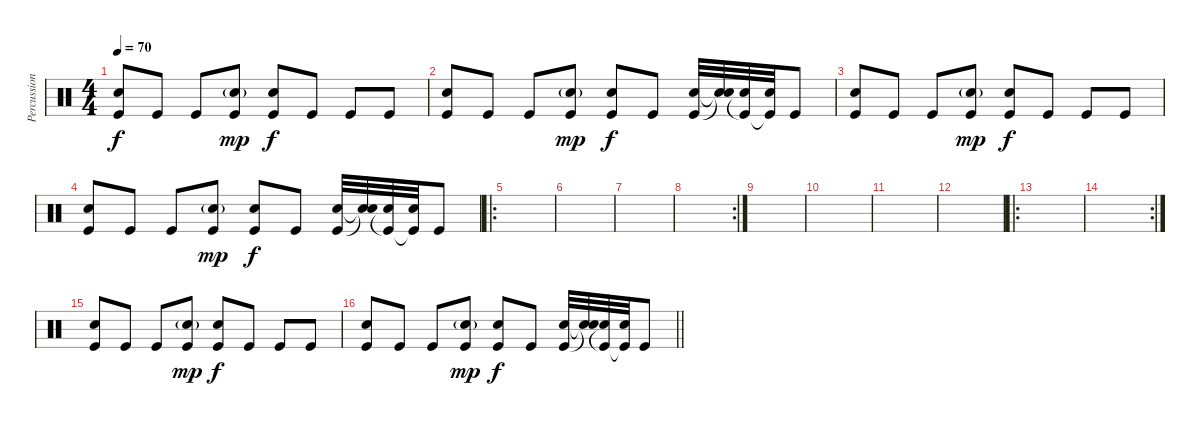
\track ("Percussions" "Percussion") {instrument percussion}
\staff {score}
\articulation defaults
\ts (4 4)
\tempo 70
\clef neutral
\ks c
("Kick (hit)" "Snare (hit) 2").8{dy f} "Kick (hit)".8 "Kick (hit)".8 ("Kick (hit)" "Snare (hit) 2"{g}).8{dy mp} ("Kick (hit)" "Snare (hit) 2").8{dy f} "Kick (hit)".8 "Kick (hit)".8 "Kick (hit)".8 |
("Kick (hit)" "Snare (hit) 2").8 "Kick (hit)".8 "Kick (hit)".8 ("Kick (hit)" "Snare (hit) 2"{g}).8{dy mp} ("Kick (hit)" "Snare (hit) 2").8{dy f} "Kick (hit)".8 ("Kick (hit)" "Snare (hit) 2").32 ("Snare (hit)"{t} "Snare (hit) 2"{t}).32 ("Kick (hit)"{t} "Snare (hit) 2").32 ("Kick (hit)"{t} "Snare (hit) 2").32 "Kick (hit)".8 |
("Kick (hit)" "Snare (hit) 2").8 "Kick (hit)".8 "Kick (hit)".8 ("Kick (hit)" "Snare (hit) 2"{g}).8{dy mp} ("Kick (hit)" "Snare (hit) 2").8{dy f} "Kick (hit)".8 "Kick (hit)".8 "Kick (hit)".8 |
("Kick (hit)" "Snare (hit) 2").8 "Kick (hit)".8 "Kick (hit)".8 ("Kick (hit)" "Snare (hit) 2"{g}).8{dy mp} ("Kick (hit)" "Snare (hit) 2").8{dy f} "Kick (hit)".8 ("Kick (hit)" "Snare (hit) 2").32 ("Snare (hit)"{t} "Snare (hit) 2"{t}).32 ("Kick (hit)"{t} "Snare (hit) 2").32 ("Kick (hit)"{t} "Snare (hit) 2").32 "Kick (hit)".8 |
\ro
|
|
|
\rc 2
|
|
|
|
|
\ro
|
\rc 2
|
("Kick (hit)" "Snare (hit) 2").8 "Kick (hit)".8 "Kick (hit)".8 ("Kick (hit)" "Snare (hit) 2"{g}).8{dy mp} ("Kick (hit)" "Snare (hit) 2").8{dy f} "Kick (hit)".8 "Kick (hit)".8 "Kick (hit)".8 |
\barLineRight lightlight
("Kick (hit)" "Snare (hit) 2").8 "Kick (hit)".8 "Kick (hit)".8 ("Kick (hit)" "Snare (hit) 2"{g}).8{dy mp} ("Kick (hit)" "Snare (hit) 2").8{dy f} "Kick (hit)".8 ("Kick (hit)" "Snare (hit) 2").32 ("Snare (hit)"{t} "Snare (hit) 2"{t}).32 ("Kick (hit)"{t} "Snare (hit) 2").32 ("Kick (hit)"{t} "Snare (hit) 2").32 "Kick (hit)".8
